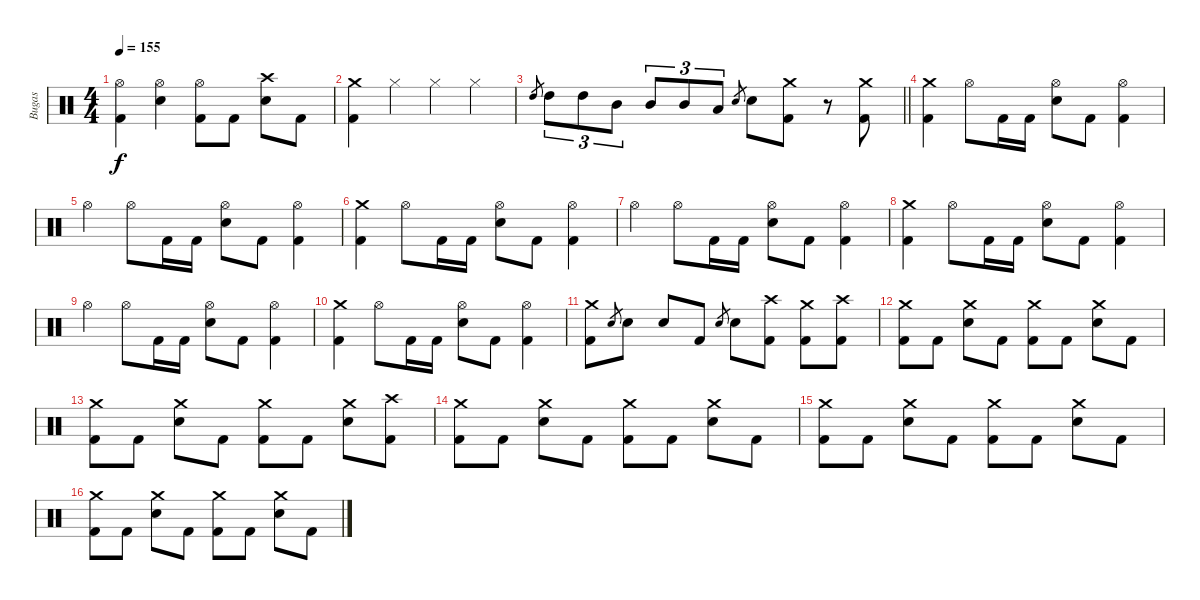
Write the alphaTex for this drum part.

\track ("Bugas" "Bugas") {instrument percussion}
\staff {score}
\articulation defaults
\ts (4 4)
\tempo 155
\clef neutral
\ks c
("Hi-Hat (open)" "Kick (hit) 2").4{dy f} ("Hi-Hat (open)" "Electric Snare (hit)").4 ("Hi-Hat (open)" "Kick (hit) 2").8 "Kick (hit) 2".8 ("Crash high (hit)" "Electric Snare (hit)").8 "Kick (hit) 2".8 |
("Crash medium (hit)" "Kick (hit) 2").4 "Hi-Hat (closed)".4 "Hi-Hat (closed)".4 "Hi-Hat (closed)".4 |
\barLineRight lightlight "High Tom (hit)".8{gr} "High Tom (hit)".8{tu (3 2)} "High Tom (hit)".8{tu (3 2)} "Mid Tom (hit)".8{tu (3 2)} "Mid Tom (hit)".8{tu (3 2)} "Mid Tom (hit)".8{tu (3 2)} "Low Tom (hit)".8{tu (3 2)} "Electric Snare (hit)".8{gr} "Electric Snare (hit)".8
("Crash medium (hit)" "Kick (hit) 2").8 r.8 ("Crash medium (hit)" "Kick (hit) 2").8 |
("Crash medium (hit)" "Kick (hit) 2").4 "Hi-Hat (open)".8 "Kick (hit) 2".16 "Kick (hit) 2".16 ("Hi-Hat (open)" "Electric Snare (hit)").8 "Kick (hit) 2".8 ("Hi-Hat (open)" "Kick (hit) 2").4 |
"Hi-Hat (open)".4 "Hi-Hat (open)".8 "Kick (hit) 2".16 "Kick (hit) 2".16 ("Hi-Hat (open)" "Electric Snare (hit)").8 "Kick (hit) 2".8 ("Hi-Hat (open)" "Kick (hit) 2").4 |
("Crash medium (hit)" "Kick (hit) 2").4 "Hi-Hat (open)".8 "Kick (hit) 2".16 "Kick (hit) 2".16 ("Hi-Hat (open)" "Electric Snare (hit)").8 "Kick (hit) 2".8 ("Hi-Hat (open)" "Kick (hit) 2").4 |
"Hi-Hat (open)".4 "Hi-Hat (open)".8 "Kick (hit) 2".16 "Kick (hit) 2".16 ("Hi-Hat (open)" "Electric Snare (hit)").8 "Kick (hit) 2".8 ("Hi-Hat (open)" "Kick (hit) 2").4 |
("Crash medium (hit)" "Kick (hit) 2").4 "Hi-Hat (open)".8 "Kick (hit) 2".16 "Kick (hit) 2".16 ("Hi-Hat (open)" "Electric Snare (hit)").8 "Kick (hit) 2".8 ("Hi-Hat (open)" "Kick (hit) 2").4 |
"Hi-Hat (open)".4 "Hi-Hat (open)".8 "Kick (hit) 2".16 "Kick (hit) 2".16 ("Hi-Hat (open)" "Electric Snare (hit)").8 "Kick (hit) 2".8 ("Hi-Hat (open)" "Kick (hit) 2").4 |
("Crash medium (hit)" "Kick (hit) 2").4 "Hi-Hat (open)".8 "Kick (hit) 2".16 "Kick (hit) 2".16 ("Hi-Hat (open)" "Electric Snare (hit)").8 "Kick (hit) 2".8 ("Hi-Hat (open)" "Kick (hit) 2").4 |
("Crash medium (hit)" "Kick (hit) 2").8 "Electric Snare (hit)".8{gr} "Electric Snare (hit)".8 "Electric Snare (hit)".8 "Kick (hit) 2".8 "Electric Snare (hit)".8{gr} "Electric Snare (hit)".8 ("Crash high (hit)" "Kick (hit) 2").8 ("Crash medium (hit)" "Kick (hit) 2").8 ("Crash high (hit)" "Kick (hit) 2").8 |
("Crash medium (hit)" "Kick (hit) 2").8 "Kick (hit) 2".8 ("Crash medium (hit)" "Electric Snare (hit)").8 "Kick (hit) 2".8 ("Crash medium (hit)" "Kick (hit) 2").8 "Kick (hit) 2".8 ("Crash medium (hit)" "Electric Snare (hit)").8 "Kick (hit) 2".8 |
("Crash medium (hit)" "Kick (hit) 2").8 "Kick (hit) 2".8 ("Crash medium (hit)" "Electric Snare (hit)").8 "Kick (hit) 2".8 ("Crash medium (hit)" "Kick (hit) 2").8 "Kick (hit) 2".8 ("Crash medium (hit)" "Electric Snare (hit)").8 ("Crash high (hit)" "Kick (hit) 2").8 |
("Crash medium (hit)" "Kick (hit) 2").8 "Kick (hit) 2".8 ("Crash medium (hit)" "Electric Snare (hit)").8 "Kick (hit) 2".8 ("Crash medium (hit)" "Kick (hit) 2").8 "Kick (hit) 2".8 ("Crash medium (hit)" "Electric Snare (hit)").8 "Kick (hit) 2".8 |
("Crash medium (hit)" "Kick (hit) 2").8 "Kick (hit) 2".8 ("Crash medium (hit)" "Electric Snare (hit)").8 "Kick (hit) 2".8 ("Crash medium (hit)" "Kick (hit) 2").8 "Kick (hit) 2".8 ("Crash medium (hit)" "Electric Snare (hit)").8 "Kick (hit) 2".8 |
("Crash medium (hit)" "Kick (hit) 2").8 "Kick (hit) 2".8 ("Crash medium (hit)" "Electric Snare (hit)").8 "Kick (hit) 2".8 ("Crash medium (hit)" "Kick (hit) 2").8 "Kick (hit) 2".8 ("Crash medium (hit)" "Electric Snare (hit)").8 "Kick (hit) 2".8
